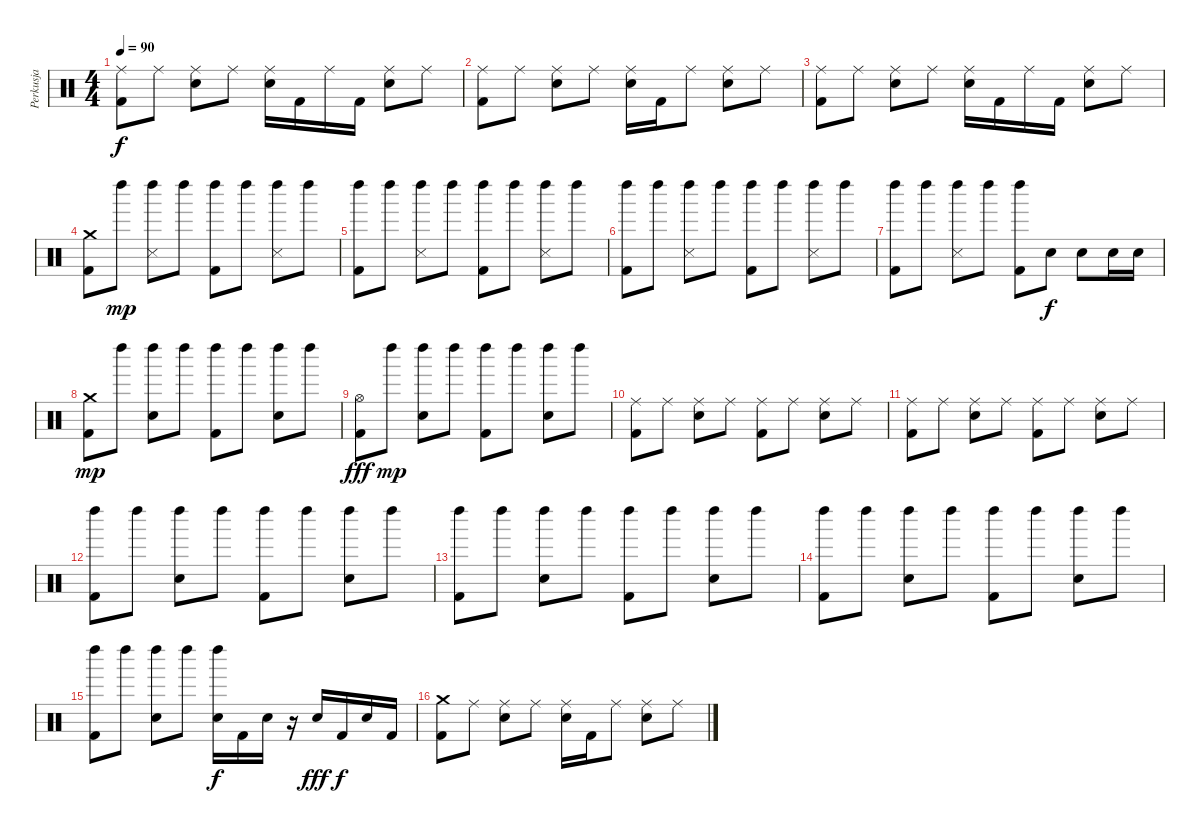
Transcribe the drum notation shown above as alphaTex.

\track ("Perkusja" "Perkusja") {instrument percussion}
\staff {score}
\articulation defaults
\ts (4 4)
\tempo 90
\clef neutral
\ks c
("Kick (hit) 2" "Ride (middle)").8{dy f} "Ride (middle)".8 ("Electric Snare (hit)" "Ride (middle)").8 "Ride (middle)".8 ("Electric Snare (hit)" "Ride (middle)").16 "Kick (hit) 2".16 "Ride (middle)".16 "Kick (hit) 2".16 ("Electric Snare (hit)" "Ride (middle)").8 "Ride (middle)".8 |
("Kick (hit) 2" "Ride (middle)").8 "Ride (middle)".8 ("Electric Snare (hit)" "Ride (middle)").8 "Ride (middle)".8 ("Electric Snare (hit)" "Ride (middle)").16 "Kick (hit) 2".16 "Ride (middle)".8 ("Electric Snare (hit)" "Ride (middle)").8 "Ride (middle)".8 |
("Kick (hit) 2" "Ride (middle)").8 "Ride (middle)".8 ("Electric Snare (hit)" "Ride (middle)").8 "Ride (middle)".8 ("Electric Snare (hit)" "Ride (middle)").16 "Kick (hit) 2".16 "Ride (middle)".16 "Kick (hit) 2".16 ("Electric Snare (hit)" "Ride (middle)").8 "Ride (middle)".8 |
("Kick (hit) 2" "Crash medium (hit)").8 "Left Maraca (hit)".8{dy mp} ("Snare (side stick) 3" "Left Maraca (hit)").8 "Left Maraca (hit)".8 ("Kick (hit) 2" "Left Maraca (hit)").8 "Left Maraca (hit)".8 ("Snare (side stick) 3" "Left Maraca (hit)").8 "Left Maraca (hit)".8 |
("Kick (hit) 2" "Left Maraca (hit)").8 "Left Maraca (hit)".8 ("Snare (side stick) 3" "Left Maraca (hit)").8 "Left Maraca (hit)".8 ("Kick (hit) 2" "Left Maraca (hit)").8 "Left Maraca (hit)".8 ("Snare (side stick) 3" "Left Maraca (hit)").8 "Left Maraca (hit)".8 |
("Kick (hit) 2" "Left Maraca (hit)").8 "Left Maraca (hit)".8 ("Snare (side stick) 3" "Left Maraca (hit)").8 "Left Maraca (hit)".8 ("Kick (hit) 2" "Left Maraca (hit)").8 "Left Maraca (hit)".8 ("Snare (side stick) 3" "Left Maraca (hit)").8 "Left Maraca (hit)".8 |
("Kick (hit) 2" "Left Maraca (hit)").8 "Left Maraca (hit)".8 ("Snare (side stick) 3" "Left Maraca (hit)").8 "Left Maraca (hit)".8 ("Kick (hit) 2" "Left Maraca (hit)").8 "Electric Snare (hit)".8{dy f} "Electric Snare (hit)".8 "Electric Snare (hit)".16 "Electric Snare (hit)".16 |
("Kick (hit) 2" "Crash medium (hit)").8{dy mp} "Left Maraca (hit)".8 ("Electric Snare (hit)" "Left Maraca (hit)").8 "Left Maraca (hit)".8 ("Kick (hit) 2" "Left Maraca (hit)").8 "Left Maraca (hit)".8 ("Electric Snare (hit)" "Left Maraca (hit)").8 "Left Maraca (hit)".8 |
("Kick (hit) 2" "Hi-Hat (open)").8{dy fff} "Left Maraca (hit)".8{dy mp} ("Electric Snare (hit)" "Left Maraca (hit)").8 "Left Maraca (hit)".8 ("Kick (hit) 2" "Left Maraca (hit)").8 "Left Maraca (hit)".8 ("Electric Snare (hit)" "Left Maraca (hit)").8 "Left Maraca (hit)".8 |
("Kick (hit) 2" "Ride (middle)").8 "Ride (middle)".8 ("Electric Snare (hit)" "Ride (middle)").8 "Ride (middle)".8 ("Kick (hit) 2" "Ride (middle)").8 "Ride (middle)".8 ("Electric Snare (hit)" "Ride (middle)").8 "Ride (middle)".8 |
("Kick (hit) 2" "Ride (middle)").8 "Ride (middle)".8 ("Electric Snare (hit)" "Ride (middle)").8 "Ride (middle)".8 ("Kick (hit) 2" "Ride (middle)").8 "Ride (middle)".8 ("Electric Snare (hit)" "Ride (middle)").8 "Ride (middle)".8 |
("Kick (hit) 2" "Left Maraca (hit)").8 "Left Maraca (hit)".8 ("Electric Snare (hit)" "Left Maraca (hit)").8 "Left Maraca (hit)".8 ("Kick (hit) 2" "Left Maraca (hit)").8 "Left Maraca (hit)".8 ("Electric Snare (hit)" "Left Maraca (hit)").8 "Left Maraca (hit)".8 |
("Kick (hit) 2" "Left Maraca (hit)").8 "Left Maraca (hit)".8 ("Electric Snare (hit)" "Left Maraca (hit)").8 "Left Maraca (hit)".8 ("Kick (hit) 2" "Left Maraca (hit)").8 "Left Maraca (hit)".8 ("Electric Snare (hit)" "Left Maraca (hit)").8 "Left Maraca (hit)".8 |
("Kick (hit) 2" "Left Maraca (hit)").8 "Left Maraca (hit)".8 ("Electric Snare (hit)" "Left Maraca (hit)").8 "Left Maraca (hit)".8 ("Kick (hit) 2" "Left Maraca (hit)").8 "Left Maraca (hit)".8 ("Electric Snare (hit)" "Left Maraca (hit)").8 "Left Maraca (hit)".8 |
("Kick (hit) 2" "Left Maraca (hit)").8 "Left Maraca (hit)".8 ("Electric Snare (hit)" "Left Maraca (hit)").8 "Left Maraca (hit)".8 ("Electric Snare (hit)" "Left Maraca (hit)").16{dy f} "Kick (hit) 2".16 "Electric Snare (hit)".16 r.16 "Electric Snare (hit)".16{dy fff} "Kick (hit) 2".16{dy f} "Electric Snare (hit)".16 "Kick (hit) 2".16 |
("Kick (hit) 2" "Crash medium (hit)").8 "Ride (middle)".8 ("Electric Snare (hit)" "Ride (middle)").8 "Ride (middle)".8 ("Electric Snare (hit)" "Ride (middle)").16 "Kick (hit) 2".16 "Ride (middle)".8 ("Electric Snare (hit)" "Ride (middle)").8 "Ride (middle)".8
